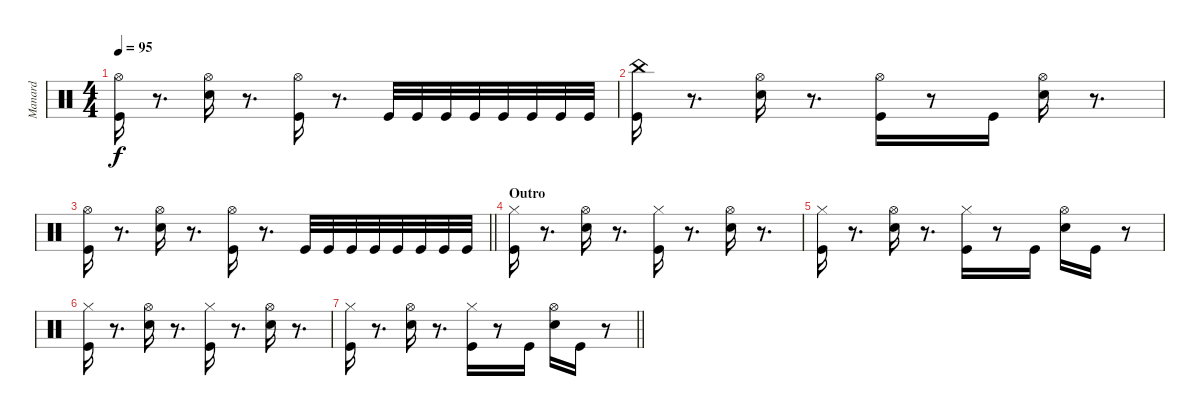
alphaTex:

\track ("Manard" "Manard") {instrument percussion}
\staff {score}
\articulation defaults
\ts (4 4)
\tempo 95
\clef neutral
\ks c
("Hi-Hat (open)" "Kick (hit)").16{dy f} r.8{d} ("Hi-Hat (open)" "Snare (hit) 2").16 r.8{d} ("Hi-Hat (open)" "Kick (hit)").16 r.8{d} "Kick (hit)".32 "Kick (hit)".32 "Kick (hit)".32 "Kick (hit)".32 "Kick (hit)".32 "Kick (hit)".32 "Kick (hit)".32 "Kick (hit)".32 |
("China (hit)" "Kick (hit)").16 r.8{d} ("Hi-Hat (open)" "Snare (hit) 2").16 r.8{d} ("Hi-Hat (open)" "Kick (hit)").16 r.8 "Kick (hit)".16 ("Hi-Hat (open)" "Snare (hit) 2").16 r.8{d} |
\barLineRight lightlight
("Hi-Hat (open)" "Kick (hit)").16 r.8{d} ("Hi-Hat (open)" "Snare (hit) 2").16 r.8{d} ("Hi-Hat (open)" "Kick (hit)").16 r.8{d} "Kick (hit)".32 "Kick (hit)".32 "Kick (hit)".32 "Kick (hit)".32 "Kick (hit)".32 "Kick (hit)".32 "Kick (hit)".32 "Kick (hit)".32 |
\section ("" "Outro")
("Hi-Hat (closed)" "Kick (hit)").16 r.8{d} ("Hi-Hat (open)" "Snare (hit) 2").16 r.8{d} ("Hi-Hat (closed)" "Kick (hit)").16 r.8{d} ("Hi-Hat (open)" "Snare (hit) 2").16 r.8{d} |
("Hi-Hat (closed)" "Kick (hit)").16 r.8{d} ("Hi-Hat (open)" "Snare (hit) 2").16 r.8{d} ("Hi-Hat (closed)" "Kick (hit)").16 r.8 "Kick (hit)".16 ("Hi-Hat (open)" "Snare (hit) 2").16 "Kick (hit)".16 r.8 |
("Hi-Hat (closed)" "Kick (hit)").16 r.8{d} ("Hi-Hat (open)" "Snare (hit) 2").16 r.8{d} ("Hi-Hat (closed)" "Kick (hit)").16 r.8{d} ("Hi-Hat (open)" "Snare (hit) 2").16 r.8{d} |
\barLineRight lightlight
("Hi-Hat (closed)" "Kick (hit)").16 r.8{d} ("Hi-Hat (open)" "Snare (hit) 2").16 r.8{d} ("Hi-Hat (closed)" "Kick (hit)").16 r.8 "Kick (hit)".16 ("Hi-Hat (open)" "Snare (hit) 2").16 "Kick (hit)".16 r.8
